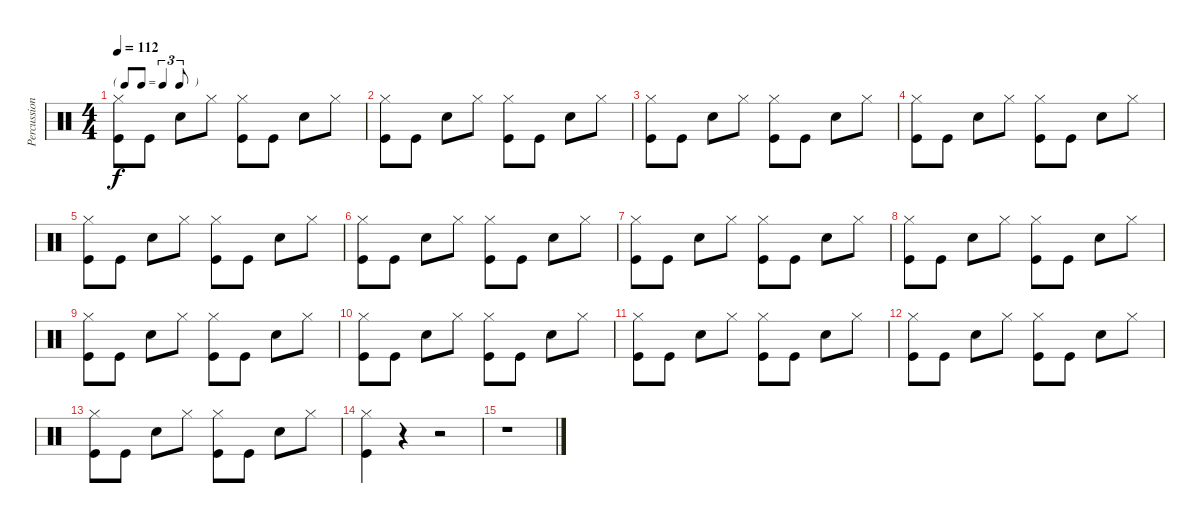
\track ("Percussion" "Percussion") {instrument percussion}
\staff {score}
\articulation defaults
\ts (4 4)
\tf triplet8th
\tempo 112
\clef neutral
\ks c
("Hi-Hat (closed)" "Kick (hit)").8{dy f} "Kick (hit)".8 "Snare (hit) 2".8 "Hi-Hat (closed)".8 ("Hi-Hat (closed)" "Kick (hit)").8 "Kick (hit)".8 "Snare (hit) 2".8 "Hi-Hat (closed)".8 |
("Hi-Hat (closed)" "Kick (hit)").8 "Kick (hit)".8 "Snare (hit) 2".8 "Hi-Hat (closed)".8 ("Hi-Hat (closed)" "Kick (hit)").8 "Kick (hit)".8 "Snare (hit) 2".8 "Hi-Hat (closed)".8 |
("Hi-Hat (closed)" "Kick (hit)").8 "Kick (hit)".8 "Snare (hit) 2".8 "Hi-Hat (closed)".8 ("Hi-Hat (closed)" "Kick (hit)").8 "Kick (hit)".8 "Snare (hit) 2".8 "Hi-Hat (closed)".8 |
("Hi-Hat (closed)" "Kick (hit)").8 "Kick (hit)".8 "Snare (hit) 2".8 "Hi-Hat (closed)".8 ("Hi-Hat (closed)" "Kick (hit)").8 "Kick (hit)".8 "Snare (hit) 2".8 "Hi-Hat (closed)".8 |
("Hi-Hat (closed)" "Kick (hit)").8 "Kick (hit)".8 "Snare (hit) 2".8 "Hi-Hat (closed)".8 ("Hi-Hat (closed)" "Kick (hit)").8 "Kick (hit)".8 "Snare (hit) 2".8 "Hi-Hat (closed)".8 |
("Hi-Hat (closed)" "Kick (hit)").8 "Kick (hit)".8 "Snare (hit) 2".8 "Hi-Hat (closed)".8 ("Hi-Hat (closed)" "Kick (hit)").8 "Kick (hit)".8 "Snare (hit) 2".8 "Hi-Hat (closed)".8 |
("Hi-Hat (closed)" "Kick (hit)").8 "Kick (hit)".8 "Snare (hit) 2".8 "Hi-Hat (closed)".8 ("Hi-Hat (closed)" "Kick (hit)").8 "Kick (hit)".8 "Snare (hit) 2".8 "Hi-Hat (closed)".8 |
("Hi-Hat (closed)" "Kick (hit)").8 "Kick (hit)".8 "Snare (hit) 2".8 "Hi-Hat (closed)".8 ("Hi-Hat (closed)" "Kick (hit)").8 "Kick (hit)".8 "Snare (hit) 2".8 "Hi-Hat (closed)".8 |
("Hi-Hat (closed)" "Kick (hit)").8 "Kick (hit)".8 "Snare (hit) 2".8 "Hi-Hat (closed)".8 ("Hi-Hat (closed)" "Kick (hit)").8 "Kick (hit)".8 "Snare (hit) 2".8 "Hi-Hat (closed)".8 |
("Hi-Hat (closed)" "Kick (hit)").8 "Kick (hit)".8 "Snare (hit) 2".8 "Hi-Hat (closed)".8 ("Hi-Hat (closed)" "Kick (hit)").8 "Kick (hit)".8 "Snare (hit) 2".8 "Hi-Hat (closed)".8 |
("Hi-Hat (closed)" "Kick (hit)").8 "Kick (hit)".8 "Snare (hit) 2".8 "Hi-Hat (closed)".8 ("Hi-Hat (closed)" "Kick (hit)").8 "Kick (hit)".8 "Snare (hit) 2".8 "Hi-Hat (closed)".8 |
("Hi-Hat (closed)" "Kick (hit)").8 "Kick (hit)".8 "Snare (hit) 2".8 "Hi-Hat (closed)".8 ("Hi-Hat (closed)" "Kick (hit)").8 "Kick (hit)".8 "Snare (hit) 2".8 "Hi-Hat (closed)".8 |
("Hi-Hat (closed)" "Kick (hit)").8 "Kick (hit)".8 "Snare (hit) 2".8 "Hi-Hat (closed)".8 ("Hi-Hat (closed)" "Kick (hit)").8 "Kick (hit)".8 "Snare (hit) 2".8 "Hi-Hat (closed)".8 |
("Hi-Hat (closed)" "Kick (hit)").4 r.4 r.2 |
r.1
